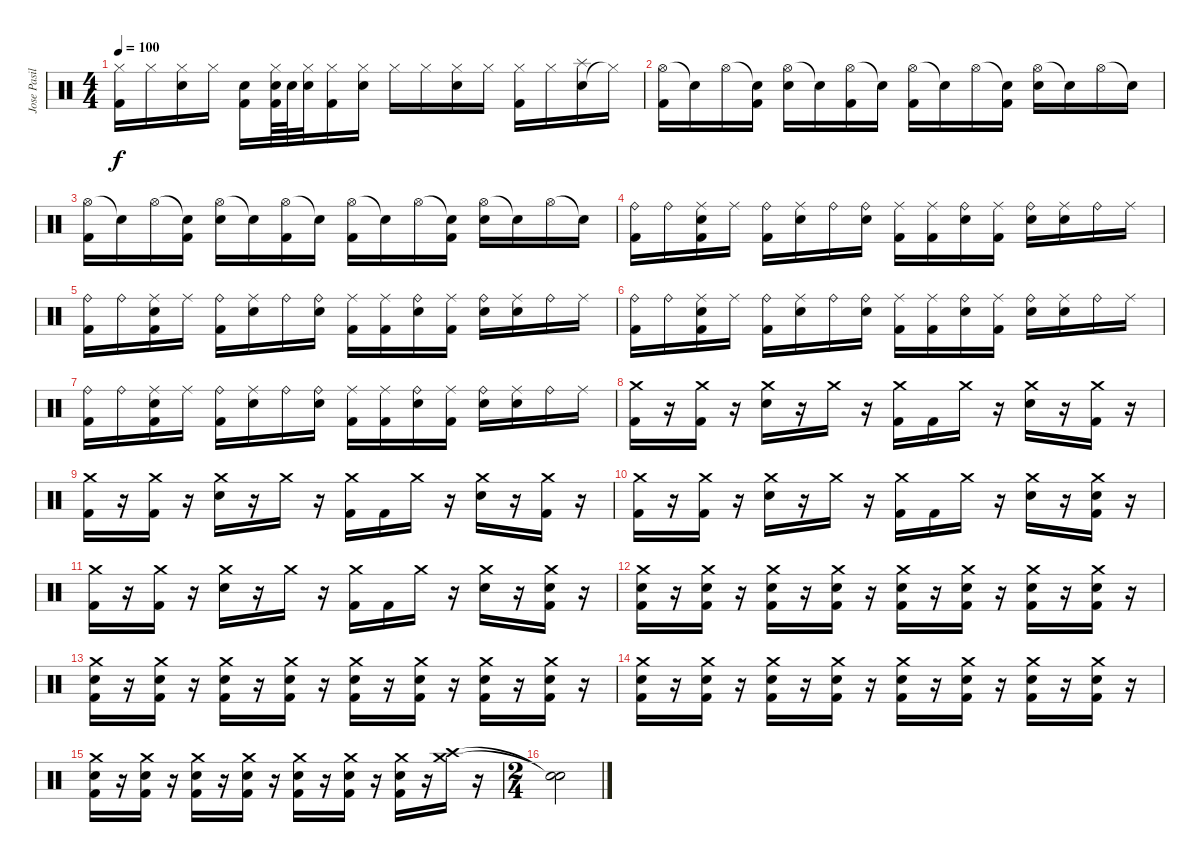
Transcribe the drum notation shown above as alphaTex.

\track ("Jose Pasillas" "Jose Pasil") {instrument percussion}
\staff {score}
\articulation defaults
\ts (4 4)
\tempo 100
\clef neutral
\ks c
("Hi-Hat (closed)" "Kick (hit) 2").16{dy f} "Hi-Hat (closed)".16 ("Electric Snare (hit)" "Hi-Hat (closed)").16 "Hi-Hat (closed)".16 ("Electric Snare (hit)" "Kick (hit) 2").16 ("Kick (hit) 2" "Electric Snare (hit)" "Hi-Hat (closed)").64 "Electric Snare (hit)".64 ("Electric Snare (hit)" "Hi-Hat (closed)").32 ("Hi-Hat (closed)" "Kick (hit) 2").16 ("Electric Snare (hit)" "Hi-Hat (closed)").16 "Hi-Hat (closed)".16 "Hi-Hat (closed)".16 ("Electric Snare (hit)" "Hi-Hat (closed)").16 "Hi-Hat (closed)".16 ("Hi-Hat (closed)" "Kick (hit) 2").16 "Hi-Hat (closed)".16 ("Electric Snare (hit)" "Splash (hit)").16 "Hi-Hat (closed)"{t}.16 |
("Hi-Hat (open)" "Kick (hit) 2").16 "Snare (hit)"{t}.16 "Hi-Hat (open)".16 ("Snare (hit)"{t} "Kick (hit) 2").16 ("Hi-Hat (open)" "Electric Snare (hit)").16 "Snare (hit)"{t}.16 ("Hi-Hat (open)" "Kick (hit) 2").16 "Snare (hit)"{t}.16 ("Hi-Hat (open)" "Kick (hit) 2").16 "Snare (hit)"{t}.16 "Hi-Hat (open)".16 ("Snare (hit)"{t} "Kick (hit) 2").16 ("Hi-Hat (open)" "Electric Snare (hit)").16 "Snare (hit)"{t}.16 "Hi-Hat (open)".16 "Snare (hit)"{t}.16 |
("Hi-Hat (open)" "Kick (hit) 2").16 "Snare (hit)"{t}.16 "Hi-Hat (open)".16 ("Snare (hit)"{t} "Kick (hit) 2").16 ("Hi-Hat (open)" "Electric Snare (hit)").16 "Snare (hit)"{t}.16 ("Hi-Hat (open)" "Kick (hit) 2").16 "Snare (hit)"{t}.16 ("Hi-Hat (open)" "Kick (hit) 2").16 "Snare (hit)"{t}.16 "Hi-Hat (open)".16 ("Snare (hit)"{t} "Kick (hit) 2").16 ("Hi-Hat (open)" "Electric Snare (hit)").16 "Snare (hit)"{t}.16 "Hi-Hat (open)".16 "Snare (hit)"{t}.16 |
("Ride (bell)" "Kick (hit) 2").16 "Ride (bell)".16 ("Ride (middle)" "Kick (hit) 2" "Electric Snare (hit)").16 "Ride (middle)".16 ("Ride (bell)" "Kick (hit) 2").16 ("Ride (middle)" "Electric Snare (hit)").16 "Ride (bell)".16 ("Ride (bell)" "Electric Snare (hit)").16 ("Ride (middle)" "Kick (hit) 2").16 ("Ride (middle)" "Kick (hit) 2").16 ("Ride (bell)" "Electric Snare (hit)").16 ("Ride (middle)" "Kick (hit) 2").16 ("Ride (bell)" "Electric Snare (hit)").16 ("Ride (middle)" "Electric Snare (hit)").16 "Ride (bell)".16 "Ride (middle)".16 |
("Ride (bell)" "Kick (hit) 2").16 "Ride (bell)".16 ("Ride (middle)" "Kick (hit) 2" "Electric Snare (hit)").16 "Ride (middle)".16 ("Ride (bell)" "Kick (hit) 2").16 ("Ride (middle)" "Electric Snare (hit)").16 "Ride (bell)".16 ("Ride (bell)" "Electric Snare (hit)").16 ("Ride (middle)" "Kick (hit) 2").16 ("Ride (middle)" "Kick (hit) 2").16 ("Ride (bell)" "Electric Snare (hit)").16 ("Ride (middle)" "Kick (hit) 2").16 ("Ride (bell)" "Electric Snare (hit)").16 ("Ride (middle)" "Electric Snare (hit)").16 "Ride (bell)".16 "Ride (middle)".16 |
("Ride (bell)" "Kick (hit) 2").16 "Ride (bell)".16 ("Ride (middle)" "Kick (hit) 2" "Electric Snare (hit)").16 "Ride (middle)".16 ("Ride (bell)" "Kick (hit) 2").16 ("Ride (middle)" "Electric Snare (hit)").16 "Ride (bell)".16 ("Ride (bell)" "Electric Snare (hit)").16 ("Ride (middle)" "Kick (hit) 2").16 ("Ride (middle)" "Kick (hit) 2").16 ("Ride (bell)" "Electric Snare (hit)").16 ("Ride (middle)" "Kick (hit) 2").16 ("Ride (bell)" "Electric Snare (hit)").16 ("Ride (middle)" "Electric Snare (hit)").16 "Ride (bell)".16 "Ride (middle)".16 |
("Ride (bell)" "Kick (hit) 2").16 "Ride (bell)".16 ("Ride (middle)" "Kick (hit) 2" "Electric Snare (hit)").16 "Ride (middle)".16 ("Ride (bell)" "Kick (hit) 2").16 ("Ride (middle)" "Electric Snare (hit)").16 "Ride (bell)".16 ("Ride (bell)" "Electric Snare (hit)").16 ("Ride (middle)" "Kick (hit) 2").16 ("Ride (middle)" "Kick (hit) 2").16 ("Ride (bell)" "Electric Snare (hit)").16 ("Ride (middle)" "Kick (hit) 2").16 ("Ride (bell)" "Electric Snare (hit)").16 ("Ride (middle)" "Electric Snare (hit)").16 "Ride (bell)".16 "Ride (middle)".16 |
("Kick (hit) 2" "Crash medium (hit)").16 r.16 ("Kick (hit) 2" "Crash medium (hit)").16 r.16 ("Electric Snare (hit)" "Crash medium (hit)").16 r.16 "Crash medium (hit)".16 r.16 ("Kick (hit) 2" "Crash medium (hit)").16 "Kick (hit) 2".16 "Crash medium (hit)".16 r.16 ("Electric Snare (hit)" "Crash medium (hit)").16 r.16 ("Kick (hit) 2" "Crash medium (hit)").16 r.16 |
("Kick (hit) 2" "Crash medium (hit)").16 r.16 ("Kick (hit) 2" "Crash medium (hit)").16 r.16 ("Electric Snare (hit)" "Crash medium (hit)").16 r.16 "Crash medium (hit)".16 r.16 ("Kick (hit) 2" "Crash medium (hit)").16 "Kick (hit) 2".16 "Crash medium (hit)".16 r.16 ("Electric Snare (hit)" "Crash medium (hit)").16 r.16 ("Kick (hit) 2" "Crash medium (hit)").16 r.16 |
("Kick (hit) 2" "Crash medium (hit)").16 r.16 ("Kick (hit) 2" "Crash medium (hit)").16 r.16 ("Electric Snare (hit)" "Crash medium (hit)").16 r.16 "Crash medium (hit)".16 r.16 ("Kick (hit) 2" "Crash medium (hit)").16 "Kick (hit) 2".16 "Crash medium (hit)".16 r.16 ("Electric Snare (hit)" "Crash medium (hit)").16 r.16 ("Kick (hit) 2" "Electric Snare (hit)" "Crash medium (hit)").16 r.16 |
("Kick (hit) 2" "Crash medium (hit)").16 r.16 ("Kick (hit) 2" "Crash medium (hit)").16 r.16 ("Electric Snare (hit)" "Crash medium (hit)").16 r.16 "Crash medium (hit)".16 r.16 ("Kick (hit) 2" "Crash medium (hit)").16 "Kick (hit) 2".16 "Crash medium (hit)".16 r.16 ("Electric Snare (hit)" "Crash medium (hit)").16 r.16 ("Kick (hit) 2" "Electric Snare (hit)" "Crash medium (hit)").16 r.16 |
("Crash medium (hit)" "Electric Snare (hit)" "Kick (hit) 2").16 r.16 ("Crash medium (hit)" "Electric Snare (hit)" "Kick (hit) 2").16 r.16 ("Crash medium (hit)" "Electric Snare (hit)" "Kick (hit) 2").16 r.16 ("Crash medium (hit)" "Electric Snare (hit)" "Kick (hit) 2").16 r.16 ("Crash medium (hit)" "Electric Snare (hit)" "Kick (hit) 2").16 r.16 ("Crash medium (hit)" "Electric Snare (hit)" "Kick (hit) 2").16 r.16 ("Crash medium (hit)" "Electric Snare (hit)" "Kick (hit) 2").16 r.16 ("Crash medium (hit)" "Electric Snare (hit)" "Kick (hit) 2").16 r.16 |
("Crash medium (hit)" "Electric Snare (hit)" "Kick (hit) 2").16 r.16 ("Crash medium (hit)" "Electric Snare (hit)" "Kick (hit) 2").16 r.16 ("Crash medium (hit)" "Electric Snare (hit)" "Kick (hit) 2").16 r.16 ("Crash medium (hit)" "Electric Snare (hit)" "Kick (hit) 2").16 r.16 ("Crash medium (hit)" "Electric Snare (hit)" "Kick (hit) 2").16 r.16 ("Crash medium (hit)" "Electric Snare (hit)" "Kick (hit) 2").16 r.16 ("Crash medium (hit)" "Electric Snare (hit)" "Kick (hit) 2").16 r.16 ("Crash medium (hit)" "Electric Snare (hit)" "Kick (hit) 2").16 r.16 |
("Crash medium (hit)" "Electric Snare (hit)" "Kick (hit) 2").16 r.16 ("Crash medium (hit)" "Electric Snare (hit)" "Kick (hit) 2").16 r.16 ("Crash medium (hit)" "Electric Snare (hit)" "Kick (hit) 2").16 r.16 ("Crash medium (hit)" "Electric Snare (hit)" "Kick (hit) 2").16 r.16 ("Crash medium (hit)" "Electric Snare (hit)" "Kick (hit) 2").16 r.16 ("Crash medium (hit)" "Electric Snare (hit)" "Kick (hit) 2").16 r.16 ("Crash medium (hit)" "Electric Snare (hit)" "Kick (hit) 2").16 r.16 ("Crash medium (hit)" "Electric Snare (hit)" "Kick (hit) 2").16 r.16 |
("Crash medium (hit)" "Electric Snare (hit)" "Kick (hit) 2").16 r.16 ("Crash medium (hit)" "Electric Snare (hit)" "Kick (hit) 2").16 r.16 ("Crash medium (hit)" "Electric Snare (hit)" "Kick (hit) 2").16 r.16 ("Crash medium (hit)" "Electric Snare (hit)" "Kick (hit) 2").16 r.16 ("Crash medium (hit)" "Electric Snare (hit)" "Kick (hit) 2").16 r.16 ("Crash medium (hit)" "Electric Snare (hit)" "Kick (hit) 2").16 r.16 ("Crash medium (hit)" "Electric Snare (hit)" "Kick (hit) 2").16 r.16 ("Crash high (hit)" "Crash medium (hit)").16 r.16 |
\ts (2 4)
("Snare (hit)"{t} "Snare (hit)"{t}).2
